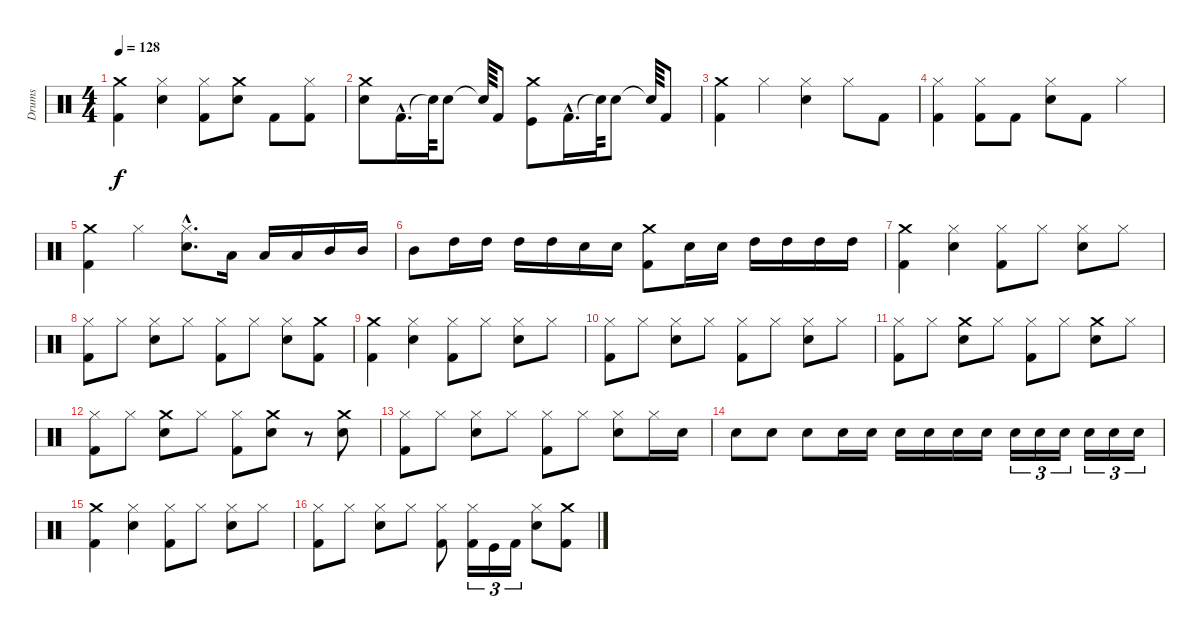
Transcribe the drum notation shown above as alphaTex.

\track ("Drums" "Drums") {instrument percussion}
\staff {score}
\articulation defaults
\ts (4 4)
\tempo 128
\clef neutral
\ks c
("Crash medium (hit)" "Kick (hit) 2").4{dy f} ("Hi-Hat (closed)" "Snare (hit) 2").4 ("Hi-Hat (closed)" "Kick (hit) 2").8 ("Crash medium (hit)" "Snare (hit) 2").8 "Kick (hit) 2".8 ("Hi-Hat (closed)" "Kick (hit) 2").8 |
("Crash medium (hit)" "Snare (hit) 2").8 "Kick (hit) 2"{hac}.16{d} "Snare (hit)"{t}.64 "Snare (hit) 2".8 "Snare (hit)"{t}.64 "Kick (hit) 2".8 ("Crash medium (hit)" "Kick (hit)").8 "Kick (hit) 2"{hac}.16{d} "Snare (hit)"{t}.64 "Snare (hit) 2".8 "Snare (hit)"{t}.64 "Kick (hit) 2".8 |
("Kick (hit) 2" "Crash medium (hit)").4 "Hi-Hat (closed)".4 ("Snare (hit) 2" "Hi-Hat (closed)").4 "Hi-Hat (closed)".8 "Kick (hit) 2".8 |
("Hi-Hat (closed)" "Kick (hit) 2").4 ("Hi-Hat (closed)" "Kick (hit) 2").8 "Kick (hit) 2".8 ("Snare (hit) 2" "Hi-Hat (closed)").8 "Kick (hit) 2".8 "Hi-Hat (closed)".4 |
("Crash medium (hit)" "Kick (hit) 2").4 "Hi-Hat (closed)".4 ("Hi-Hat (closed)"{hac} "Snare (hit) 2"{hac}).8{d} "Low Tom (hit)".16 "Low Tom (hit)".16 "Low Tom (hit)".16 "Mid Tom (hit)".16 "Mid Tom (hit)".16 |
"Mid Tom (hit)".8 "High Tom (hit)".16 "High Tom (hit)".16 "High Tom (hit)".16 "High Tom (hit)".16 "Snare (hit) 2".16 "Snare (hit) 2".16 ("Crash medium (hit)" "Kick (hit) 2").8 "Snare (hit) 2".16 "Snare (hit) 2".16 "High Tom (hit)".16 "High Tom (hit)".16 "High Tom (hit)".16 "High Tom (hit)".16 |
("Kick (hit) 2" "Crash medium (hit)").4 ("Hi-Hat (closed)" "Snare (hit) 2").4 ("Hi-Hat (closed)" "Kick (hit) 2").8 "Hi-Hat (closed)".8 ("Snare (hit) 2" "Hi-Hat (closed)").8 "Hi-Hat (closed)".8 |
("Kick (hit) 2" "Hi-Hat (closed)").8 "Hi-Hat (closed)".8 ("Snare (hit) 2" "Hi-Hat (closed)").8 "Hi-Hat (closed)".8 ("Kick (hit) 2" "Hi-Hat (closed)").8 "Hi-Hat (closed)".8 ("Snare (hit) 2" "Hi-Hat (closed)").8 ("Kick (hit) 2" "Crash medium (hit)").8 |
("Crash medium (hit)" "Kick (hit) 2").4 ("Hi-Hat (closed)" "Snare (hit) 2").4 ("Hi-Hat (closed)" "Kick (hit) 2").8 "Hi-Hat (closed)".8 ("Snare (hit) 2" "Hi-Hat (closed)").8 "Hi-Hat (closed)".8 |
("Hi-Hat (closed)" "Kick (hit) 2").8 "Hi-Hat (closed)".8 ("Snare (hit) 2" "Hi-Hat (closed)").8 "Hi-Hat (closed)".8 ("Hi-Hat (closed)" "Kick (hit) 2").8 "Hi-Hat (closed)".8 ("Snare (hit) 2" "Hi-Hat (closed)").8 "Hi-Hat (closed)".8 |
("Hi-Hat (closed)" "Kick (hit) 2").8 "Hi-Hat (closed)".8 ("Crash medium (hit)" "Snare (hit) 2").8 "Hi-Hat (closed)".8 ("Hi-Hat (closed)" "Kick (hit) 2").8 "Hi-Hat (closed)".8 ("Snare (hit) 2" "Crash medium (hit)").8 "Hi-Hat (closed)".8 |
("Hi-Hat (closed)" "Kick (hit) 2").8 "Hi-Hat (closed)".8 ("Crash medium (hit)" "Snare (hit) 2").8 "Hi-Hat (closed)".8 ("Hi-Hat (closed)" "Kick (hit) 2").8 ("Crash medium (hit)" "Snare (hit) 2").8 r.8 ("Crash medium (hit)" "Snare (hit) 2").8 |
("Kick (hit) 2" "Hi-Hat (closed)").8 "Hi-Hat (closed)".8 ("Snare (hit) 2" "Hi-Hat (closed)").8 "Hi-Hat (closed)".8 ("Kick (hit) 2" "Hi-Hat (closed)").8 "Hi-Hat (closed)".8 ("Snare (hit) 2" "Hi-Hat (closed)").8 "Hi-Hat (closed)".16 "Snare (hit) 2".16 |
"Snare (hit) 2".8 "Snare (hit) 2".8 "Snare (hit) 2".8 "Snare (hit) 2".16 "Snare (hit) 2".16 "Snare (hit) 2".16 "Snare (hit) 2".16 "Snare (hit) 2".16 "Snare (hit) 2".16 "Snare (hit) 2".16{tu (3 2)} "Snare (hit) 2".16{tu (3 2)} "Snare (hit) 2".16{tu (3 2)} "Snare (hit) 2".16{tu (3 2)} "Snare (hit) 2".16{tu (3 2)} "Snare (hit) 2".16{tu (3 2)} |
("Kick (hit) 2" "Crash medium (hit)").4 ("Hi-Hat (closed)" "Snare (hit) 2").4 ("Hi-Hat (closed)" "Kick (hit) 2").8 "Hi-Hat (closed)".8 ("Snare (hit) 2" "Hi-Hat (closed)").8 "Hi-Hat (closed)".8 |
("Kick (hit) 2" "Hi-Hat (closed)").8 "Hi-Hat (closed)".8 ("Snare (hit) 2" "Hi-Hat (closed)").8 "Hi-Hat (closed)".8 ("Kick (hit) 2" "Hi-Hat (closed)").8 ("Kick (hit) 2" "Hi-Hat (closed)").16{tu (3 2)} "Kick (hit)".16{tu (3 2)} "Kick (hit) 2".16{tu (3 2)} ("Snare (hit) 2" "Hi-Hat (closed)").8 ("Crash medium (hit)" "Kick (hit) 2").8
